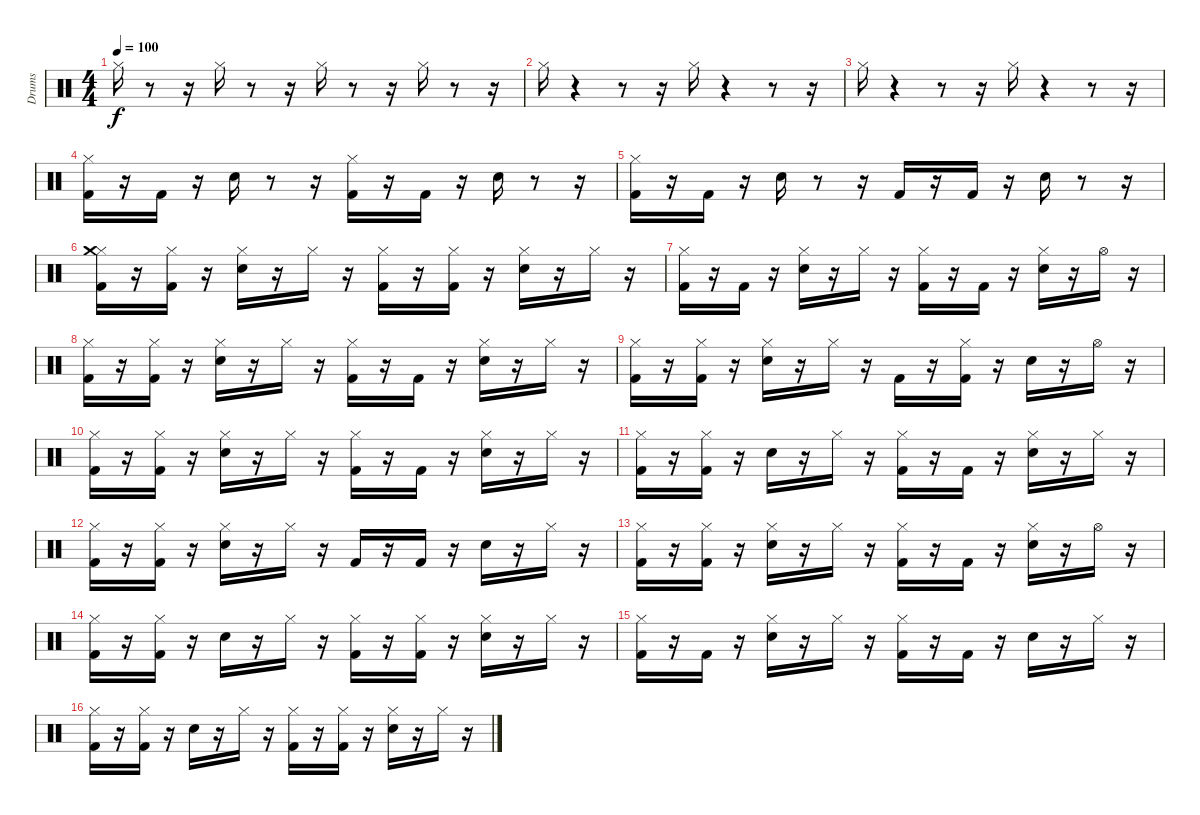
\bracketExtendMode groupsimilarinstruments
\otherSystemsTrackNameOrientation horizontal
\track ("Drumkit" "Drums") {instrument percussion}
\staff {score}
\articulation defaults
\ts (4 4)
\tempo 100
\clef neutral
\ks c "Hi-Hat (closed)".16{dy f beam Down}
r.8{beam Down} r.16{beam Down} "Hi-Hat (closed)".16{beam Down} r.8{beam Down} r.16{beam Down} "Hi-Hat (closed)".16{beam Down} r.8{beam Down} r.16{beam Down} "Hi-Hat (closed)".16{beam Down} r.8{beam Down} r.16{beam Down} |
"Hi-Hat (closed)".16{beam Down} r.4{beam Down} r.8{beam Down} r.16{beam Down} "Hi-Hat (closed)".16{beam Down} r.4{beam Down} r.8{beam Down} r.16{beam Down} |
"Hi-Hat (closed)".16{beam Down} r.4{beam Down} r.8{beam Down} r.16{beam Down} "Hi-Hat (closed)".16{beam Down} r.4{beam Down} r.8{beam Down} r.16{beam Down} |
("Kick (hit) 2" "Hi-Hat (closed)").16{beam Down} r.16{beam Down} "Kick (hit) 2".16{beam Down} r.16{beam Down} "Snare (hit) 2".16{beam Down} r.8{beam Down} r.16{beam Down} ("Kick (hit) 2" "Hi-Hat (closed)").16{beam Down} r.16{beam Down} "Kick (hit) 2".16{beam Down} r.16{beam Down} "Snare (hit) 2".16{beam Down} r.8{beam Down} r.16{beam Down} |
("Kick (hit) 2" "Hi-Hat (closed)").16{beam Down} r.16{beam Down} "Kick (hit) 2".16{beam Down} r.16{beam Down} "Snare (hit) 2".16{beam Down} r.8{beam Down} r.16{beam Down} "Kick (hit) 2".16{beam Up} r.16{beam Up} "Kick (hit) 2".16{beam Up} r.16{beam Up} "Snare (hit) 2".16{beam Down} r.8{beam Down} r.16{beam Down} |
("Kick (hit) 2" "Hi-Hat (closed)" "Crash medium (hit)").16{beam Down} r.16{beam Down} ("Kick (hit) 2" "Hi-Hat (closed)").16{beam Down} r.16{beam Down} ("Snare (hit) 2" "Hi-Hat (closed)").16{beam Down} r.16{beam Down} "Hi-Hat (closed)".16{beam Down} r.16{beam Down} ("Kick (hit) 2" "Hi-Hat (closed)").16{beam Down} r.16{beam Down} ("Kick (hit) 2" "Hi-Hat (closed)").16{beam Down} r.16{beam Down} ("Snare (hit) 2" "Hi-Hat (closed)").16{beam Down} r.16{beam Down} "Hi-Hat (closed)".16{beam Down} r.16{beam Down} |
("Kick (hit) 2" "Hi-Hat (closed)").16{beam Down} r.16{beam Down} "Kick (hit) 2".16{beam Down} r.16{beam Down} ("Snare (hit) 2" "Hi-Hat (closed)").16{beam Down} r.16{beam Down} "Hi-Hat (closed)".16{beam Down} r.16{beam Down} ("Kick (hit) 2" "Hi-Hat (closed)").16{beam Down} r.16{beam Down} "Kick (hit) 2".16{beam Down} r.16{beam Down} ("Snare (hit) 2" "Hi-Hat (closed)").16{beam Down} r.16{beam Down} "Hi-Hat (open)".16{beam Down} r.16{beam Down} |
("Kick (hit) 2" "Hi-Hat (closed)").16{beam Down} r.16{beam Down} ("Kick (hit) 2" "Hi-Hat (closed)").16{beam Down} r.16{beam Down} ("Snare (hit) 2" "Hi-Hat (closed)").16{beam Down} r.16{beam Down} "Hi-Hat (closed)".16{beam Down} r.16{beam Down} ("Kick (hit) 2" "Hi-Hat (closed)").16{beam Down} r.16{beam Down} "Kick (hit) 2".16{beam Down} r.16{beam Down} ("Snare (hit) 2" "Hi-Hat (closed)").16{beam Down} r.16{beam Down} "Hi-Hat (closed)".16{beam Down} r.16{beam Down} |
("Kick (hit) 2" "Hi-Hat (closed)").16{beam Down} r.16{beam Down} ("Kick (hit) 2" "Hi-Hat (closed)").16{beam Down} r.16{beam Down} ("Snare (hit) 2" "Hi-Hat (closed)").16{beam Down} r.16{beam Down} "Hi-Hat (closed)".16{beam Down} r.16{beam Down} "Kick (hit) 2".16{beam Down} r.16{beam Down} ("Kick (hit) 2" "Hi-Hat (closed)").16{beam Down} r.16{beam Down} "Snare (hit) 2".16{beam Down} r.16{beam Down} "Hi-Hat (open)".16{beam Down} r.16{beam Down} |
("Kick (hit) 2" "Hi-Hat (closed)").16{beam Down} r.16{beam Down} ("Kick (hit) 2" "Hi-Hat (closed)").16{beam Down} r.16{beam Down} ("Snare (hit) 2" "Hi-Hat (closed)").16{beam Down} r.16{beam Down} "Hi-Hat (closed)".16{beam Down} r.16{beam Down} ("Kick (hit) 2" "Hi-Hat (closed)").16{beam Down} r.16{beam Down} "Kick (hit) 2".16{beam Down} r.16{beam Down} ("Snare (hit) 2" "Hi-Hat (closed)").16{beam Down} r.16{beam Down} "Hi-Hat (closed)".16{beam Down} r.16{beam Down} |
("Kick (hit) 2" "Hi-Hat (closed)").16{beam Down} r.16{beam Down} ("Kick (hit) 2" "Hi-Hat (closed)").16{beam Down} r.16{beam Down} "Snare (hit) 2".16{beam Down} r.16{beam Down} "Hi-Hat (closed)".16{beam Down} r.16{beam Down} ("Kick (hit) 2" "Hi-Hat (closed)").16{beam Down} r.16{beam Down} "Kick (hit) 2".16{beam Down} r.16{beam Down} ("Snare (hit) 2" "Hi-Hat (closed)").16{beam Down} r.16{beam Down} "Hi-Hat (closed)".16{beam Down} r.16{beam Down} |
("Kick (hit) 2" "Hi-Hat (closed)").16{beam Down} r.16{beam Down} ("Kick (hit) 2" "Hi-Hat (closed)").16{beam Down} r.16{beam Down} ("Snare (hit) 2" "Hi-Hat (closed)").16{beam Down} r.16{beam Down} "Hi-Hat (closed)".16{beam Down} r.16{beam Down} "Kick (hit) 2".16{beam Up} r.16{beam Up} "Kick (hit) 2".16{beam Up} r.16{beam Up} "Snare (hit) 2".16{beam Down} r.16{beam Down} "Hi-Hat (closed)".16{beam Down} r.16{beam Down} |
("Kick (hit) 2" "Hi-Hat (closed)").16{beam Down} r.16{beam Down} ("Kick (hit) 2" "Hi-Hat (closed)").16{beam Down} r.16{beam Down} ("Snare (hit) 2" "Hi-Hat (closed)").16{beam Down} r.16{beam Down} "Hi-Hat (closed)".16{beam Down} r.16{beam Down} ("Kick (hit) 2" "Hi-Hat (closed)").16{beam Down} r.16{beam Down} "Kick (hit) 2".16{beam Down} r.16{beam Down} ("Snare (hit) 2" "Hi-Hat (closed)").16{beam Down} r.16{beam Down} "Hi-Hat (open)".16{beam Down} r.16{beam Down} |
("Kick (hit) 2" "Hi-Hat (closed)").16{beam Down} r.16{beam Down} ("Kick (hit) 2" "Hi-Hat (closed)").16{beam Down} r.16{beam Down} "Snare (hit) 2".16{beam Down} r.16{beam Down} "Hi-Hat (closed)".16{beam Down} r.16{beam Down} ("Kick (hit) 2" "Hi-Hat (closed)").16{beam Down} r.16{beam Down} ("Kick (hit) 2" "Hi-Hat (closed)").16{beam Down} r.16{beam Down} ("Snare (hit) 2" "Hi-Hat (closed)").16{beam Down} r.16{beam Down} "Hi-Hat (closed)".16{beam Down} r.16{beam Down} |
("Kick (hit) 2" "Hi-Hat (closed)").16{beam Down} r.16{beam Down} "Kick (hit) 2".16{beam Down} r.16{beam Down} ("Snare (hit) 2" "Hi-Hat (closed)").16{beam Down} r.16{beam Down} "Hi-Hat (closed)".16{beam Down} r.16{beam Down} ("Kick (hit) 2" "Hi-Hat (closed)").16{beam Down} r.16{beam Down} "Kick (hit) 2".16{beam Down} r.16{beam Down} "Snare (hit) 2".16{beam Down} r.16{beam Down} "Hi-Hat (closed)".16{beam Down} r.16{beam Down} |
("Kick (hit) 2" "Hi-Hat (closed)").16{beam Down} r.16{beam Down} ("Kick (hit) 2" "Hi-Hat (closed)").16{beam Down} r.16{beam Down} "Snare (hit) 2".16{beam Down} r.16{beam Down} "Hi-Hat (closed)".16{beam Down} r.16{beam Down} ("Kick (hit) 2" "Hi-Hat (closed)").16{beam Down} r.16{beam Down} ("Kick (hit) 2" "Hi-Hat (closed)").16{beam Down} r.16{beam Down} ("Snare (hit) 2" "Hi-Hat (closed)").16{beam Down} r.16{beam Down} "Hi-Hat (closed)".16{beam Down} r.16{beam Down}
